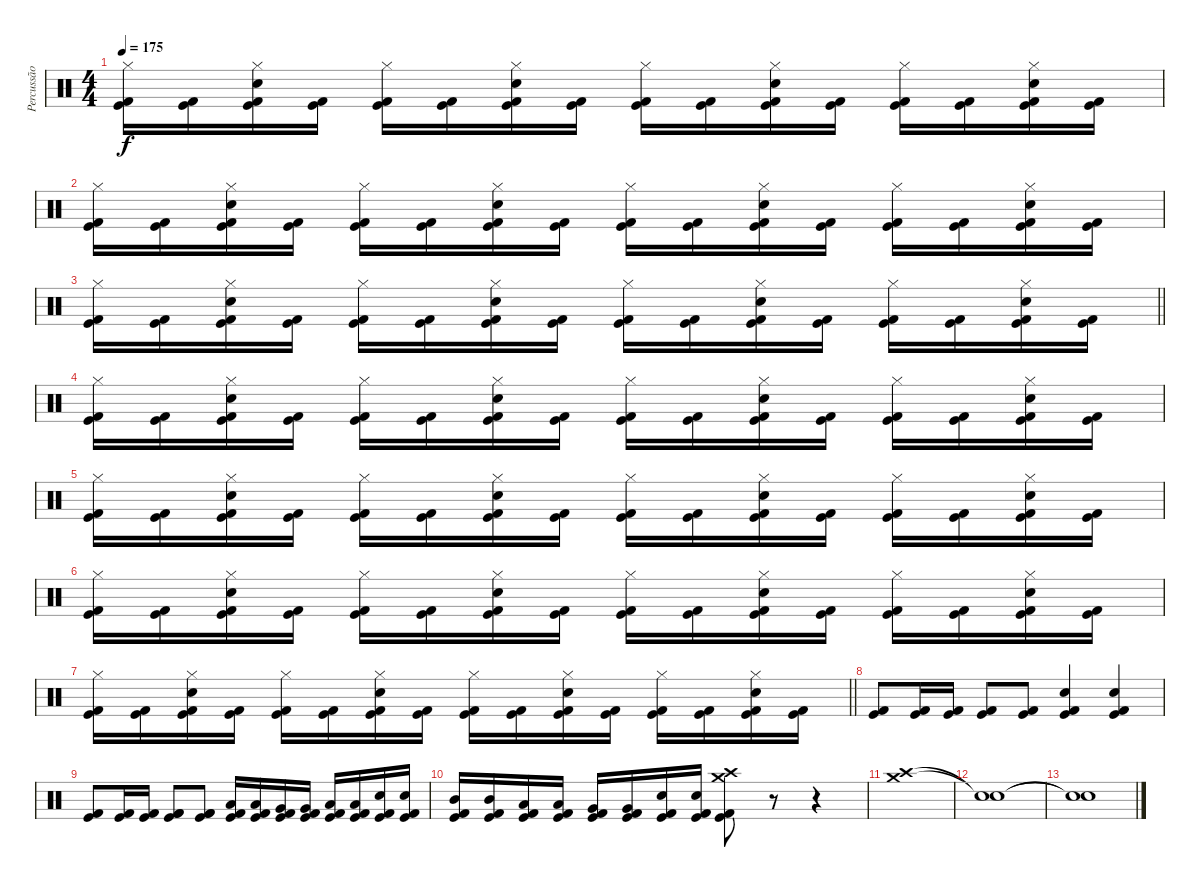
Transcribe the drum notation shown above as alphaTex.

\track ("Percussão" "Percussão") {instrument percussion}
\staff {score}
\articulation defaults
\ts (4 4)
\tempo 175
\clef neutral
\ks c
("Hi-Hat (closed)" "Kick (hit)" "Kick (hit) 2").16{dy f} ("Kick (hit)" "Kick (hit) 2").16 ("Hi-Hat (closed)" "Electric Snare (hit)" "Kick (hit)" "Kick (hit) 2").16 ("Kick (hit)" "Kick (hit) 2").16 ("Hi-Hat (closed)" "Kick (hit)" "Kick (hit) 2").16 ("Kick (hit)" "Kick (hit) 2").16 ("Hi-Hat (closed)" "Electric Snare (hit)" "Kick (hit)" "Kick (hit) 2").16 ("Kick (hit)" "Kick (hit) 2").16 ("Hi-Hat (closed)" "Kick (hit)" "Kick (hit) 2").16 ("Kick (hit)" "Kick (hit) 2").16 ("Hi-Hat (closed)" "Electric Snare (hit)" "Kick (hit)" "Kick (hit) 2").16 ("Kick (hit)" "Kick (hit) 2").16 ("Hi-Hat (closed)" "Kick (hit)" "Kick (hit) 2").16 ("Kick (hit)" "Kick (hit) 2").16 ("Hi-Hat (closed)" "Electric Snare (hit)" "Kick (hit)" "Kick (hit) 2").16 ("Kick (hit)" "Kick (hit) 2").16 |
("Hi-Hat (closed)" "Kick (hit)" "Kick (hit) 2").16 ("Kick (hit)" "Kick (hit) 2").16 ("Hi-Hat (closed)" "Electric Snare (hit)" "Kick (hit)" "Kick (hit) 2").16 ("Kick (hit)" "Kick (hit) 2").16 ("Hi-Hat (closed)" "Kick (hit)" "Kick (hit) 2").16 ("Kick (hit)" "Kick (hit) 2").16 ("Hi-Hat (closed)" "Electric Snare (hit)" "Kick (hit)" "Kick (hit) 2").16 ("Kick (hit)" "Kick (hit) 2").16 ("Hi-Hat (closed)" "Kick (hit)" "Kick (hit) 2").16 ("Kick (hit)" "Kick (hit) 2").16 ("Hi-Hat (closed)" "Electric Snare (hit)" "Kick (hit)" "Kick (hit) 2").16 ("Kick (hit)" "Kick (hit) 2").16 ("Hi-Hat (closed)" "Kick (hit)" "Kick (hit) 2").16 ("Kick (hit)" "Kick (hit) 2").16 ("Hi-Hat (closed)" "Electric Snare (hit)" "Kick (hit)" "Kick (hit) 2").16 ("Kick (hit)" "Kick (hit) 2").16 |
\barLineRight lightlight
("Hi-Hat (closed)" "Kick (hit)" "Kick (hit) 2").16 ("Kick (hit)" "Kick (hit) 2").16 ("Hi-Hat (closed)" "Electric Snare (hit)" "Kick (hit)" "Kick (hit) 2").16 ("Kick (hit)" "Kick (hit) 2").16 ("Hi-Hat (closed)" "Kick (hit)" "Kick (hit) 2").16 ("Kick (hit)" "Kick (hit) 2").16 ("Hi-Hat (closed)" "Electric Snare (hit)" "Kick (hit)" "Kick (hit) 2").16 ("Kick (hit)" "Kick (hit) 2").16 ("Hi-Hat (closed)" "Kick (hit)" "Kick (hit) 2").16 ("Kick (hit)" "Kick (hit) 2").16 ("Hi-Hat (closed)" "Electric Snare (hit)" "Kick (hit)" "Kick (hit) 2").16 ("Kick (hit)" "Kick (hit) 2").16 ("Hi-Hat (closed)" "Kick (hit)" "Kick (hit) 2").16 ("Kick (hit)" "Kick (hit) 2").16 ("Hi-Hat (closed)" "Electric Snare (hit)" "Kick (hit)" "Kick (hit) 2").16 ("Kick (hit)" "Kick (hit) 2").16 |
("Hi-Hat (closed)" "Kick (hit)" "Kick (hit) 2").16 ("Kick (hit)" "Kick (hit) 2").16 ("Hi-Hat (closed)" "Electric Snare (hit)" "Kick (hit)" "Kick (hit) 2").16 ("Kick (hit)" "Kick (hit) 2").16 ("Hi-Hat (closed)" "Kick (hit)" "Kick (hit) 2").16 ("Kick (hit)" "Kick (hit) 2").16 ("Hi-Hat (closed)" "Electric Snare (hit)" "Kick (hit)" "Kick (hit) 2").16 ("Kick (hit)" "Kick (hit) 2").16 ("Hi-Hat (closed)" "Kick (hit)" "Kick (hit) 2").16 ("Kick (hit)" "Kick (hit) 2").16 ("Hi-Hat (closed)" "Electric Snare (hit)" "Kick (hit)" "Kick (hit) 2").16 ("Kick (hit)" "Kick (hit) 2").16 ("Hi-Hat (closed)" "Kick (hit)" "Kick (hit) 2").16 ("Kick (hit)" "Kick (hit) 2").16 ("Hi-Hat (closed)" "Electric Snare (hit)" "Kick (hit)" "Kick (hit) 2").16 ("Kick (hit)" "Kick (hit) 2").16 |
("Hi-Hat (closed)" "Kick (hit)" "Kick (hit) 2").16 ("Kick (hit)" "Kick (hit) 2").16 ("Hi-Hat (closed)" "Electric Snare (hit)" "Kick (hit)" "Kick (hit) 2").16 ("Kick (hit)" "Kick (hit) 2").16 ("Hi-Hat (closed)" "Kick (hit)" "Kick (hit) 2").16 ("Kick (hit)" "Kick (hit) 2").16 ("Hi-Hat (closed)" "Electric Snare (hit)" "Kick (hit)" "Kick (hit) 2").16 ("Kick (hit)" "Kick (hit) 2").16 ("Hi-Hat (closed)" "Kick (hit)" "Kick (hit) 2").16 ("Kick (hit)" "Kick (hit) 2").16 ("Hi-Hat (closed)" "Electric Snare (hit)" "Kick (hit)" "Kick (hit) 2").16 ("Kick (hit)" "Kick (hit) 2").16 ("Hi-Hat (closed)" "Kick (hit)" "Kick (hit) 2").16 ("Kick (hit)" "Kick (hit) 2").16 ("Hi-Hat (closed)" "Electric Snare (hit)" "Kick (hit)" "Kick (hit) 2").16 ("Kick (hit)" "Kick (hit) 2").16 |
("Hi-Hat (closed)" "Kick (hit)" "Kick (hit) 2").16 ("Kick (hit)" "Kick (hit) 2").16 ("Hi-Hat (closed)" "Electric Snare (hit)" "Kick (hit)" "Kick (hit) 2").16 ("Kick (hit)" "Kick (hit) 2").16 ("Hi-Hat (closed)" "Kick (hit)" "Kick (hit) 2").16 ("Kick (hit)" "Kick (hit) 2").16 ("Hi-Hat (closed)" "Electric Snare (hit)" "Kick (hit)" "Kick (hit) 2").16 ("Kick (hit)" "Kick (hit) 2").16 ("Hi-Hat (closed)" "Kick (hit)" "Kick (hit) 2").16 ("Kick (hit)" "Kick (hit) 2").16 ("Hi-Hat (closed)" "Electric Snare (hit)" "Kick (hit)" "Kick (hit) 2").16 ("Kick (hit)" "Kick (hit) 2").16 ("Hi-Hat (closed)" "Kick (hit)" "Kick (hit) 2").16 ("Kick (hit)" "Kick (hit) 2").16 ("Hi-Hat (closed)" "Electric Snare (hit)" "Kick (hit)" "Kick (hit) 2").16 ("Kick (hit)" "Kick (hit) 2").16 |
\barLineRight lightlight
("Hi-Hat (closed)" "Kick (hit)" "Kick (hit) 2").16 ("Kick (hit)" "Kick (hit) 2").16 ("Hi-Hat (closed)" "Electric Snare (hit)" "Kick (hit)" "Kick (hit) 2").16 ("Kick (hit)" "Kick (hit) 2").16 ("Hi-Hat (closed)" "Kick (hit)" "Kick (hit) 2").16 ("Kick (hit)" "Kick (hit) 2").16 ("Hi-Hat (closed)" "Electric Snare (hit)" "Kick (hit)" "Kick (hit) 2").16 ("Kick (hit)" "Kick (hit) 2").16 ("Hi-Hat (closed)" "Kick (hit)" "Kick (hit) 2").16 ("Kick (hit)" "Kick (hit) 2").16 ("Hi-Hat (closed)" "Electric Snare (hit)" "Kick (hit)" "Kick (hit) 2").16 ("Kick (hit)" "Kick (hit) 2").16 ("Hi-Hat (closed)" "Kick (hit)" "Kick (hit) 2").16 ("Kick (hit)" "Kick (hit) 2").16 ("Hi-Hat (closed)" "Electric Snare (hit)" "Kick (hit)" "Kick (hit) 2").16 ("Kick (hit)" "Kick (hit) 2").16 |
("Kick (hit) 2" "Kick (hit)").8 ("Kick (hit) 2" "Kick (hit)").16 ("Kick (hit) 2" "Kick (hit)").16 ("Kick (hit) 2" "Kick (hit)").8 ("Kick (hit) 2" "Kick (hit)").8 ("Kick (hit) 2" "Electric Snare (hit)" "Kick (hit)").4 ("Electric Snare (hit)" "Kick (hit) 2" "Kick (hit)").4 |
("Kick (hit) 2" "Kick (hit)").8 ("Kick (hit) 2" "Kick (hit)").16 ("Kick (hit) 2" "Kick (hit)").16 ("Kick (hit) 2" "Kick (hit) 2" "Kick (hit)").8 ("Kick (hit) 2" "Kick (hit) 2" "Kick (hit)").8 ("Low Tom (hit)" "Kick (hit) 2" "Kick (hit)").16 ("Low Tom (hit)" "Kick (hit) 2" "Kick (hit)").16 ("Very Low Tom (hit)" "Kick (hit) 2" "Kick (hit)").16 ("Very Low Tom (hit)" "Kick (hit) 2" "Kick (hit)").16 ("Low Tom (hit)" "Kick (hit) 2" "Kick (hit)").16 ("Low Tom (hit)" "Kick (hit) 2" "Kick (hit)").16 ("Electric Snare (hit)" "Kick (hit) 2" "Kick (hit)").16 ("Electric Snare (hit)" "Kick (hit) 2" "Kick (hit)").16 |
("Mid Tom (hit)" "Kick (hit) 2" "Kick (hit)").16 ("Mid Tom (hit)" "Kick (hit) 2" "Kick (hit)").16 ("Low Tom (hit)" "Kick (hit) 2" "Kick (hit)").16 ("Low Tom (hit)" "Kick (hit) 2" "Kick (hit)").16 ("Very Low Tom (hit)" "Kick (hit) 2" "Kick (hit)").16 ("Very Low Tom (hit)" "Kick (hit) 2" "Kick (hit)").16 ("Electric Snare (hit)" "Kick (hit) 2" "Kick (hit)").16 ("Electric Snare (hit)" "Kick (hit) 2" "Kick (hit)").16 ("Crash high (hit)" "Crash medium (hit)" "Kick (hit) 2" "Kick (hit)").8 r.8 r.4 |
("Crash medium (hit)" "Crash high (hit)").1 |
("Snare (hit)"{t} "Snare (hit)"{t}).1 |
("Snare (hit)"{t} "Snare (hit)"{t}).1
